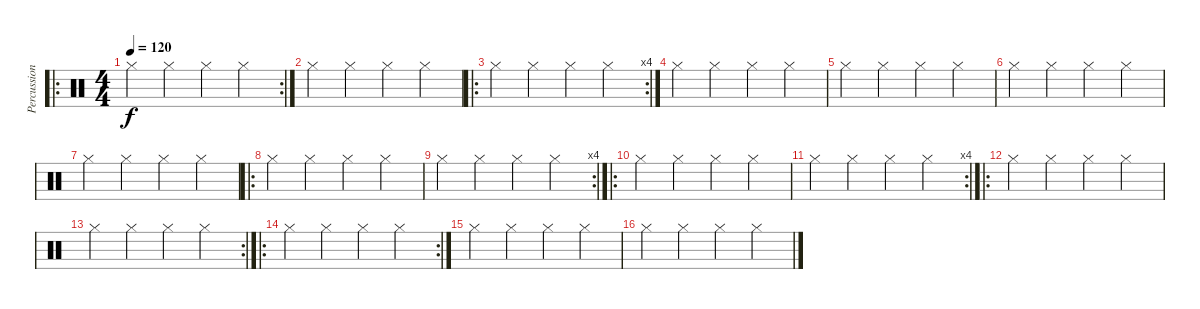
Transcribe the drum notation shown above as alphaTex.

\track ("Percussioni" "Percussion") {instrument percussion}
\staff {score}
\articulation defaults
\ro
\rc 2
\ts (4 4)
\tempo 120
\clef neutral
\ks c "Hi-Hat (closed)".4{dy f} "Hi-Hat (closed)".4 "Hi-Hat (closed)".4 "Hi-Hat (closed)".4
|
"Hi-Hat (closed)".4 "Hi-Hat (closed)".4 "Hi-Hat (closed)".4 "Hi-Hat (closed)".4 |
\ro
\rc 4 "Hi-Hat (closed)".4 "Hi-Hat (closed)".4 "Hi-Hat (closed)".4 "Hi-Hat (closed)".4
|
"Hi-Hat (closed)".4 "Hi-Hat (closed)".4 "Hi-Hat (closed)".4 "Hi-Hat (closed)".4 |
"Hi-Hat (closed)".4 "Hi-Hat (closed)".4 "Hi-Hat (closed)".4 "Hi-Hat (closed)".4 |
"Hi-Hat (closed)".4 "Hi-Hat (closed)".4 "Hi-Hat (closed)".4 "Hi-Hat (closed)".4 |
"Hi-Hat (closed)".4 "Hi-Hat (closed)".4 "Hi-Hat (closed)".4 "Hi-Hat (closed)".4 |
\ro "Hi-Hat (closed)".4 "Hi-Hat (closed)".4 "Hi-Hat (closed)".4 "Hi-Hat (closed)".4
|
\rc 4 "Hi-Hat (closed)".4 "Hi-Hat (closed)".4 "Hi-Hat (closed)".4 "Hi-Hat (closed)".4
|
\ro "Hi-Hat (closed)".4 "Hi-Hat (closed)".4 "Hi-Hat (closed)".4 "Hi-Hat (closed)".4
|
\rc 4 "Hi-Hat (closed)".4 "Hi-Hat (closed)".4 "Hi-Hat (closed)".4 "Hi-Hat (closed)".4
|
\ro "Hi-Hat (closed)".4 "Hi-Hat (closed)".4 "Hi-Hat (closed)".4 "Hi-Hat (closed)".4
|
\rc 2 "Hi-Hat (closed)".4 "Hi-Hat (closed)".4 "Hi-Hat (closed)".4 "Hi-Hat (closed)".4
|
\ro
\rc 2 "Hi-Hat (closed)".4 "Hi-Hat (closed)".4 "Hi-Hat (closed)".4 "Hi-Hat (closed)".4
|
"Hi-Hat (closed)".4 "Hi-Hat (closed)".4 "Hi-Hat (closed)".4 "Hi-Hat (closed)".4 |
"Hi-Hat (closed)".4 "Hi-Hat (closed)".4 "Hi-Hat (closed)".4 "Hi-Hat (closed)".4
